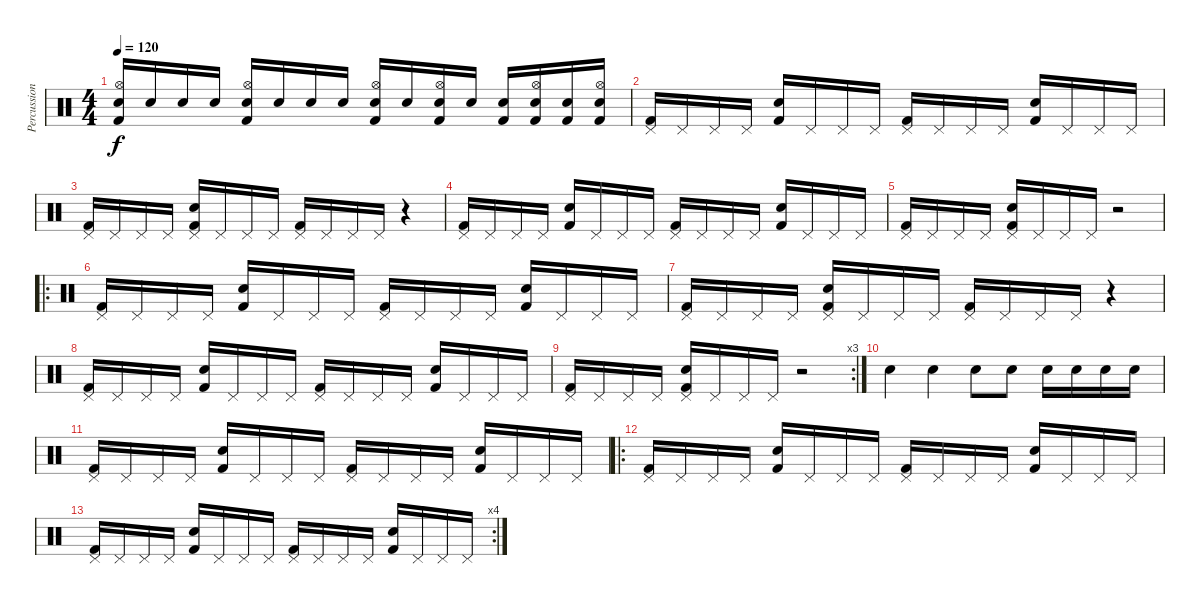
\track ("Percussions" "Percussion") {instrument percussion}
\staff {score}
\articulation defaults
\ts (4 4)
\tempo 120
\clef neutral
\ks c
("Electric Snare (hit)" "Hi-Hat (open)" "Kick (hit) 2").16{dy f} "Electric Snare (hit)".16 "Electric Snare (hit)".16 "Electric Snare (hit)".16 ("Electric Snare (hit)" "Hi-Hat (open)" "Kick (hit) 2").16 "Electric Snare (hit)".16 "Electric Snare (hit)".16 "Electric Snare (hit)".16 ("Electric Snare (hit)" "Hi-Hat (open)" "Kick (hit) 2").16 "Electric Snare (hit)".16 ("Electric Snare (hit)" "Hi-Hat (open)" "Kick (hit) 2").16 "Electric Snare (hit)".16 ("Electric Snare (hit)" "Kick (hit) 2").16 ("Electric Snare (hit)" "Hi-Hat (open)" "Kick (hit) 2").16 ("Electric Snare (hit)" "Kick (hit) 2").16 ("Electric Snare (hit)" "Hi-Hat (open)" "Kick (hit) 2").16 |
("Pedal Hi-Hat (hit)" "Kick (hit) 2").16 "Pedal Hi-Hat (hit)".16 "Pedal Hi-Hat (hit)".16 "Pedal Hi-Hat (hit)".16 ("Electric Snare (hit)" "Kick (hit) 2").16 "Pedal Hi-Hat (hit)".16 "Pedal Hi-Hat (hit)".16 "Pedal Hi-Hat (hit)".16 ("Pedal Hi-Hat (hit)" "Kick (hit) 2").16 "Pedal Hi-Hat (hit)".16 "Pedal Hi-Hat (hit)".16 "Pedal Hi-Hat (hit)".16 ("Electric Snare (hit)" "Kick (hit) 2").16 "Pedal Hi-Hat (hit)".16 "Pedal Hi-Hat (hit)".16 "Pedal Hi-Hat (hit)".16 |
("Pedal Hi-Hat (hit)" "Kick (hit) 2").16 "Pedal Hi-Hat (hit)".16 "Pedal Hi-Hat (hit)".16 "Pedal Hi-Hat (hit)".16 ("Electric Snare (hit)" "Pedal Hi-Hat (hit)" "Kick (hit) 2").16 "Pedal Hi-Hat (hit)".16 "Pedal Hi-Hat (hit)".16 "Pedal Hi-Hat (hit)".16 ("Pedal Hi-Hat (hit)" "Kick (hit) 2").16 "Pedal Hi-Hat (hit)".16 "Pedal Hi-Hat (hit)".16 "Pedal Hi-Hat (hit)".16 r.4 |
("Pedal Hi-Hat (hit)" "Kick (hit) 2").16 "Pedal Hi-Hat (hit)".16 "Pedal Hi-Hat (hit)".16 "Pedal Hi-Hat (hit)".16 ("Electric Snare (hit)" "Kick (hit) 2").16 "Pedal Hi-Hat (hit)".16 "Pedal Hi-Hat (hit)".16 "Pedal Hi-Hat (hit)".16 ("Pedal Hi-Hat (hit)" "Kick (hit) 2").16 "Pedal Hi-Hat (hit)".16 "Pedal Hi-Hat (hit)".16 "Pedal Hi-Hat (hit)".16 ("Electric Snare (hit)" "Kick (hit) 2").16 "Pedal Hi-Hat (hit)".16 "Pedal Hi-Hat (hit)".16 "Pedal Hi-Hat (hit)".16 |
("Pedal Hi-Hat (hit)" "Kick (hit) 2").16 "Pedal Hi-Hat (hit)".16 "Pedal Hi-Hat (hit)".16 "Pedal Hi-Hat (hit)".16 ("Electric Snare (hit)" "Pedal Hi-Hat (hit)" "Kick (hit) 2").16 "Pedal Hi-Hat (hit)".16 "Pedal Hi-Hat (hit)".16 "Pedal Hi-Hat (hit)".16 r.2 |
\ro
("Pedal Hi-Hat (hit)" "Kick (hit) 2").16 "Pedal Hi-Hat (hit)".16 "Pedal Hi-Hat (hit)".16 "Pedal Hi-Hat (hit)".16 ("Electric Snare (hit)" "Kick (hit) 2").16 "Pedal Hi-Hat (hit)".16 "Pedal Hi-Hat (hit)".16 "Pedal Hi-Hat (hit)".16 ("Pedal Hi-Hat (hit)" "Kick (hit) 2").16 "Pedal Hi-Hat (hit)".16 "Pedal Hi-Hat (hit)".16 "Pedal Hi-Hat (hit)".16 ("Electric Snare (hit)" "Kick (hit) 2").16 "Pedal Hi-Hat (hit)".16 "Pedal Hi-Hat (hit)".16 "Pedal Hi-Hat (hit)".16 |
("Pedal Hi-Hat (hit)" "Kick (hit) 2").16 "Pedal Hi-Hat (hit)".16 "Pedal Hi-Hat (hit)".16 "Pedal Hi-Hat (hit)".16 ("Electric Snare (hit)" "Pedal Hi-Hat (hit)" "Kick (hit) 2").16 "Pedal Hi-Hat (hit)".16 "Pedal Hi-Hat (hit)".16 "Pedal Hi-Hat (hit)".16 ("Pedal Hi-Hat (hit)" "Kick (hit) 2").16 "Pedal Hi-Hat (hit)".16 "Pedal Hi-Hat (hit)".16 "Pedal Hi-Hat (hit)".16 r.4 |
("Pedal Hi-Hat (hit)" "Kick (hit) 2").16 "Pedal Hi-Hat (hit)".16 "Pedal Hi-Hat (hit)".16 "Pedal Hi-Hat (hit)".16 ("Electric Snare (hit)" "Kick (hit) 2").16 "Pedal Hi-Hat (hit)".16 "Pedal Hi-Hat (hit)".16 "Pedal Hi-Hat (hit)".16 ("Pedal Hi-Hat (hit)" "Kick (hit) 2").16 "Pedal Hi-Hat (hit)".16 "Pedal Hi-Hat (hit)".16 "Pedal Hi-Hat (hit)".16 ("Electric Snare (hit)" "Kick (hit) 2").16 "Pedal Hi-Hat (hit)".16 "Pedal Hi-Hat (hit)".16 "Pedal Hi-Hat (hit)".16 |
\rc 3
("Pedal Hi-Hat (hit)" "Kick (hit) 2").16 "Pedal Hi-Hat (hit)".16 "Pedal Hi-Hat (hit)".16 "Pedal Hi-Hat (hit)".16 ("Electric Snare (hit)" "Pedal Hi-Hat (hit)" "Kick (hit) 2").16 "Pedal Hi-Hat (hit)".16 "Pedal Hi-Hat (hit)".16 "Pedal Hi-Hat (hit)".16 r.2 |
"Electric Snare (hit)".4 "Electric Snare (hit)".4 "Electric Snare (hit)".8 "Electric Snare (hit)".8 "Electric Snare (hit)".16 "Electric Snare (hit)".16 "Electric Snare (hit)".16 "Electric Snare (hit)".16 |
("Pedal Hi-Hat (hit)" "Kick (hit) 2").16 "Pedal Hi-Hat (hit)".16 "Pedal Hi-Hat (hit)".16 "Pedal Hi-Hat (hit)".16 ("Electric Snare (hit)" "Kick (hit) 2").16 "Pedal Hi-Hat (hit)".16 "Pedal Hi-Hat (hit)".16 "Pedal Hi-Hat (hit)".16 ("Pedal Hi-Hat (hit)" "Kick (hit) 2").16 "Pedal Hi-Hat (hit)".16 "Pedal Hi-Hat (hit)".16 "Pedal Hi-Hat (hit)".16 ("Electric Snare (hit)" "Kick (hit) 2").16 "Pedal Hi-Hat (hit)".16 "Pedal Hi-Hat (hit)".16 "Pedal Hi-Hat (hit)".16 |
\ro
("Pedal Hi-Hat (hit)" "Kick (hit) 2").16 "Pedal Hi-Hat (hit)".16 "Pedal Hi-Hat (hit)".16 "Pedal Hi-Hat (hit)".16 ("Electric Snare (hit)" "Kick (hit) 2").16 "Pedal Hi-Hat (hit)".16 "Pedal Hi-Hat (hit)".16 "Pedal Hi-Hat (hit)".16 ("Pedal Hi-Hat (hit)" "Kick (hit) 2").16 "Pedal Hi-Hat (hit)".16 "Pedal Hi-Hat (hit)".16 "Pedal Hi-Hat (hit)".16 ("Electric Snare (hit)" "Kick (hit) 2").16 "Pedal Hi-Hat (hit)".16 "Pedal Hi-Hat (hit)".16 "Pedal Hi-Hat (hit)".16 |
\rc 4
("Pedal Hi-Hat (hit)" "Kick (hit) 2").16 "Pedal Hi-Hat (hit)".16 "Pedal Hi-Hat (hit)".16 "Pedal Hi-Hat (hit)".16 ("Electric Snare (hit)" "Kick (hit) 2").16 "Pedal Hi-Hat (hit)".16 "Pedal Hi-Hat (hit)".16 "Pedal Hi-Hat (hit)".16 ("Pedal Hi-Hat (hit)" "Kick (hit) 2").16 "Pedal Hi-Hat (hit)".16 "Pedal Hi-Hat (hit)".16 "Pedal Hi-Hat (hit)".16 ("Electric Snare (hit)" "Kick (hit) 2").16 "Pedal Hi-Hat (hit)".16 "Pedal Hi-Hat (hit)".16 "Pedal Hi-Hat (hit)".16
